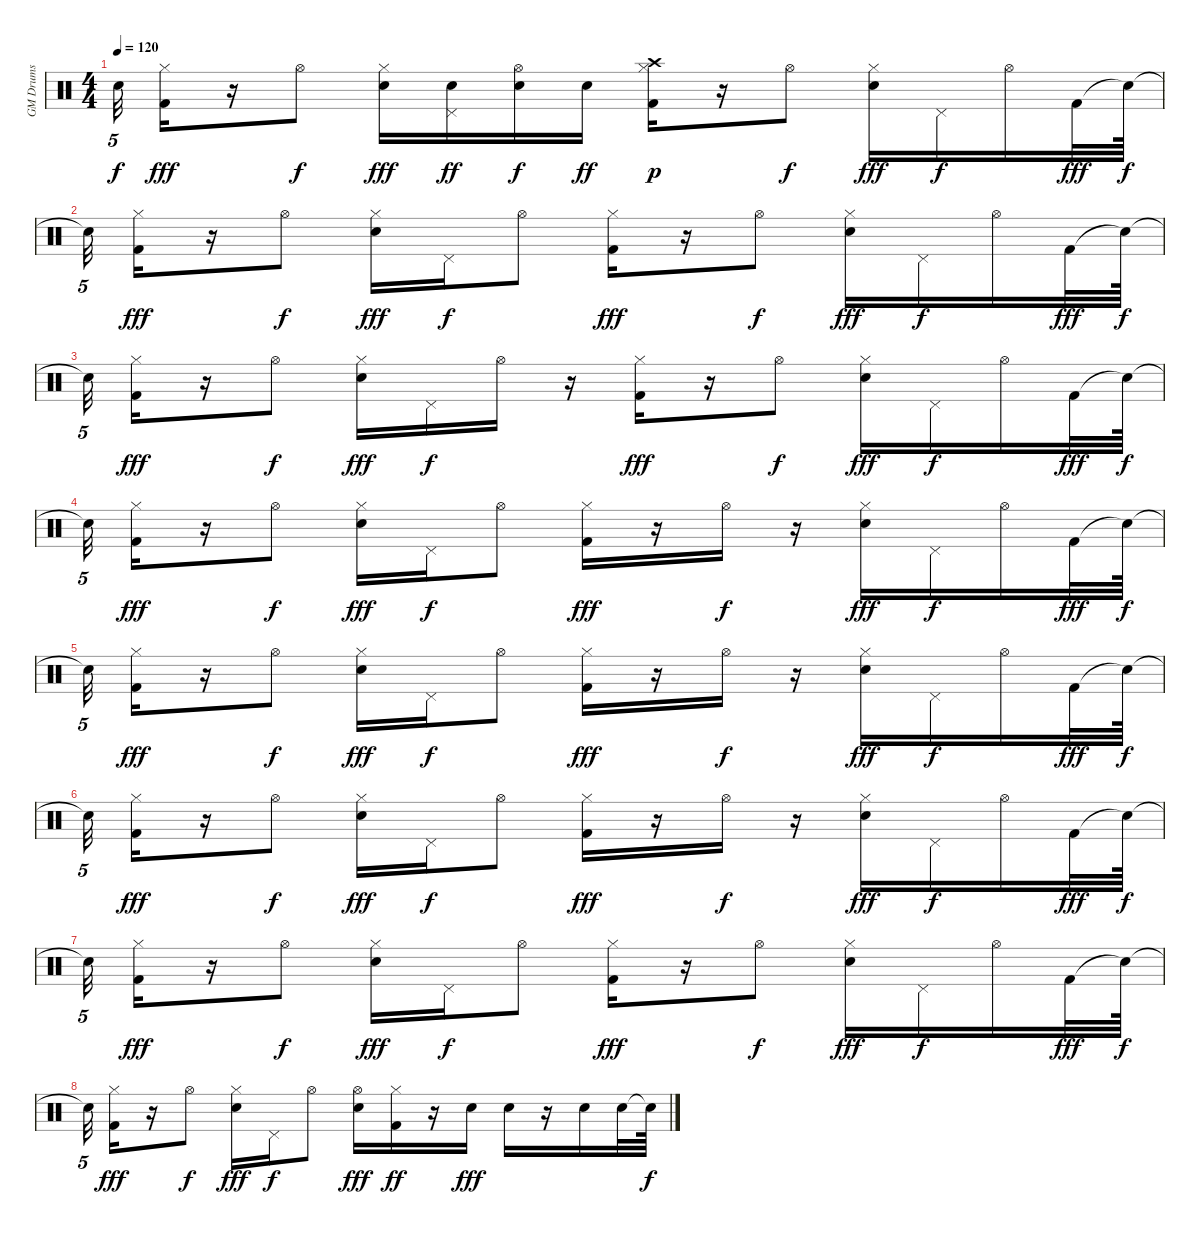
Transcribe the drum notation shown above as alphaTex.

\track ("GM Drums" "GM Drums") {instrument percussion}
\staff {score}
\articulation defaults
\ts (4 4)
\tempo 120
\clef neutral
\ks c "Snare (hit)"{t}.32{tu (5 4) dy f}
("Kick (hit) 2" "Hi-Hat (closed)").16{dy fff} r.16 "Hi-Hat (open)".8{dy f} ("Electric Snare (hit)" "Hi-Hat (closed)").16{dy fff} ("Electric Snare (hit)" "Pedal Hi-Hat (hit)").16{dy ff} ("Electric Snare (hit)" "Hi-Hat (open)").16{dy f} "Electric Snare (hit)".16{dy ff} ("Kick (hit) 2" "Hi-Hat (closed)" "Crash high (hit)").16{dy p} r.16 "Hi-Hat (open)".8{dy f} ("Electric Snare (hit)" "Hi-Hat (closed)").16{dy fff} "Pedal Hi-Hat (hit)".16{dy f} "Hi-Hat (open)".16 "Kick (hit) 2".32{dy fff} "Snare (hit)"{t}.64{dy f} |
"Snare (hit)"{t}.32{tu (5 4)} ("Kick (hit) 2" "Hi-Hat (closed)").16{dy fff} r.16 "Hi-Hat (open)".8{dy f} ("Electric Snare (hit)" "Hi-Hat (closed)").16{dy fff} "Pedal Hi-Hat (hit)".16{dy f} "Hi-Hat (open)".8 ("Kick (hit) 2" "Hi-Hat (closed)").16{dy fff} r.16 "Hi-Hat (open)".8{dy f} ("Electric Snare (hit)" "Hi-Hat (closed)").16{dy fff} "Pedal Hi-Hat (hit)".16{dy f} "Hi-Hat (open)".16 "Kick (hit) 2".32{dy fff} "Snare (hit)"{t}.64{dy f} |
"Snare (hit)"{t}.32{tu (5 4)} ("Kick (hit) 2" "Hi-Hat (closed)").16{dy fff} r.16 "Hi-Hat (open)".8{dy f} ("Electric Snare (hit)" "Hi-Hat (closed)").16{dy fff} "Pedal Hi-Hat (hit)".16{dy f} "Hi-Hat (open)".16 r.16 ("Kick (hit) 2" "Hi-Hat (closed)").16{dy fff} r.16 "Hi-Hat (open)".8{dy f} ("Electric Snare (hit)" "Hi-Hat (closed)").16{dy fff} "Pedal Hi-Hat (hit)".16{dy f} "Hi-Hat (open)".16 "Kick (hit) 2".32{dy fff} "Snare (hit)"{t}.64{dy f} |
"Snare (hit)"{t}.32{tu (5 4)} ("Kick (hit) 2" "Hi-Hat (closed)").16{dy fff} r.16 "Hi-Hat (open)".8{dy f} ("Electric Snare (hit)" "Hi-Hat (closed)").16{dy fff} "Pedal Hi-Hat (hit)".16{dy f} "Hi-Hat (open)".8 ("Kick (hit) 2" "Hi-Hat (closed)").16{dy fff} r.16 "Hi-Hat (open)".16{dy f} r.16 ("Electric Snare (hit)" "Hi-Hat (closed)").16{dy fff} "Pedal Hi-Hat (hit)".16{dy f} "Hi-Hat (open)".16 "Kick (hit) 2".32{dy fff} "Snare (hit)"{t}.64{dy f} |
"Snare (hit)"{t}.32{tu (5 4)} ("Kick (hit) 2" "Hi-Hat (closed)").16{dy fff} r.16 "Hi-Hat (open)".8{dy f} ("Electric Snare (hit)" "Hi-Hat (closed)").16{dy fff} "Pedal Hi-Hat (hit)".16{dy f} "Hi-Hat (open)".8 ("Kick (hit) 2" "Hi-Hat (closed)").16{dy fff} r.16 "Hi-Hat (open)".16{dy f} r.16 ("Electric Snare (hit)" "Hi-Hat (closed)").16{dy fff} "Pedal Hi-Hat (hit)".16{dy f} "Hi-Hat (open)".16 "Kick (hit) 2".32{dy fff} "Snare (hit)"{t}.64{dy f} |
"Snare (hit)"{t}.32{tu (5 4)} ("Kick (hit) 2" "Hi-Hat (closed)").16{dy fff} r.16 "Hi-Hat (open)".8{dy f} ("Electric Snare (hit)" "Hi-Hat (closed)").16{dy fff} "Pedal Hi-Hat (hit)".16{dy f} "Hi-Hat (open)".8 ("Kick (hit) 2" "Hi-Hat (closed)").16{dy fff} r.16 "Hi-Hat (open)".16{dy f} r.16 ("Electric Snare (hit)" "Hi-Hat (closed)").16{dy fff} "Pedal Hi-Hat (hit)".16{dy f} "Hi-Hat (open)".16 "Kick (hit) 2".32{dy fff} "Snare (hit)"{t}.64{dy f} |
"Snare (hit)"{t}.32{tu (5 4)} ("Kick (hit) 2" "Hi-Hat (closed)").16{dy fff} r.16 "Hi-Hat (open)".8{dy f} ("Electric Snare (hit)" "Hi-Hat (closed)").16{dy fff} "Pedal Hi-Hat (hit)".16{dy f} "Hi-Hat (open)".8 ("Kick (hit) 2" "Hi-Hat (closed)").16{dy fff} r.16 "Hi-Hat (open)".8{dy f} ("Electric Snare (hit)" "Hi-Hat (closed)").16{dy fff} "Pedal Hi-Hat (hit)".16{dy f} "Hi-Hat (open)".16 "Kick (hit) 2".32{dy fff} "Snare (hit)"{t}.64{dy f} |
"Snare (hit)"{t}.32{tu (5 4)} ("Kick (hit) 2" "Hi-Hat (closed)").16{dy fff} r.16 "Hi-Hat (open)".8{dy f} ("Electric Snare (hit)" "Hi-Hat (closed)").16{dy fff} "Pedal Hi-Hat (hit)".16{dy f} "Hi-Hat (open)".8 ("Electric Snare (hit)" "Hi-Hat (open)").16{dy fff} ("Kick (hit) 2" "Hi-Hat (closed)").16{dy ff} r.16 "Electric Snare (hit)".16{dy fff} "Electric Snare (hit)".16 r.16 "Electric Snare (hit)".16 "Electric Snare (hit)".32 "Snare (hit)"{t}.64{dy f}
